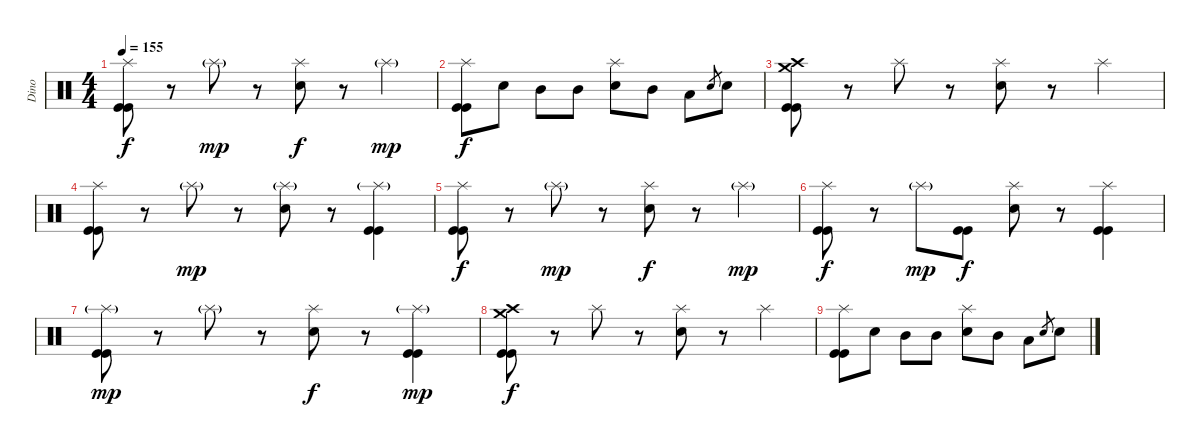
\track ("Dino" "Dino") {instrument percussion}
\staff {score}
\articulation defaults
\ts (4 4)
\tempo 155
\clef neutral
\ks c
("Splash (hit)" "Kick (hit)" "Kick (hit)").8{dy f} r.8 "Splash (hit)"{g}.8{dy mp} r.8 ("Splash (hit)" "Electric Snare (hit)").8{dy f} r.8 "Splash (hit)"{g}.4{dy mp} |
("Splash (hit)" "Kick (hit)" "Kick (hit)").8{dy f} "Electric Snare (hit)".8 "Mid Tom (hit)".8 "Mid Tom (hit)".8 ("Splash (hit)" "Electric Snare (hit)").8 "Mid Tom (hit)".8 "Low Tom (hit)".8 "Electric Snare (hit)".8{gr} "Electric Snare (hit)".8 |
("Crash medium (hit)" "Crash high (hit)" "Kick (hit)" "Kick (hit)").8 r.8 "Splash (hit)".8 r.8 ("Splash (hit)" "Electric Snare (hit)").8 r.8 "Splash (hit)".4 |
("Splash (hit)" "Kick (hit)" "Kick (hit)").8 r.8 "Splash (hit)"{g}.8{dy mp} r.8 ("Splash (hit)"{g} "Electric Snare (hit)").8 r.8 ("Splash (hit)"{g} "Kick (hit)" "Kick (hit)").4 |
("Splash (hit)" "Kick (hit)" "Kick (hit)").8{dy f} r.8 "Splash (hit)"{g}.8{dy mp} r.8 ("Splash (hit)" "Electric Snare (hit)").8{dy f} r.8 "Splash (hit)"{g}.4{dy mp} |
("Splash (hit)" "Kick (hit)" "Kick (hit)").8{dy f} r.8 "Splash (hit)"{g}.8{dy mp} ("Kick (hit)" "Kick (hit)").8{dy f} ("Splash (hit)" "Electric Snare (hit)").8 r.8 ("Splash (hit)" "Kick (hit)" "Kick (hit)").4 |
("Splash (hit)"{g} "Kick (hit)" "Kick (hit)").8{dy mp} r.8 "Splash (hit)"{g}.8 r.8 ("Splash (hit)" "Electric Snare (hit)").8{dy f} r.8 ("Splash (hit)"{g} "Kick (hit)" "Kick (hit)").4{dy mp} |
("Crash medium (hit)" "Crash high (hit)" "Kick (hit)" "Kick (hit)").8{dy f} r.8 "Splash (hit)".8 r.8 ("Splash (hit)" "Electric Snare (hit)").8 r.8 "Splash (hit)".4 |
("Splash (hit)" "Kick (hit)" "Kick (hit)").8 "Electric Snare (hit)".8 "Mid Tom (hit)".8 "Mid Tom (hit)".8 ("Splash (hit)" "Electric Snare (hit)").8 "Mid Tom (hit)".8 "Low Tom (hit)".8 "Electric Snare (hit)".8{gr} "Electric Snare (hit)".8
